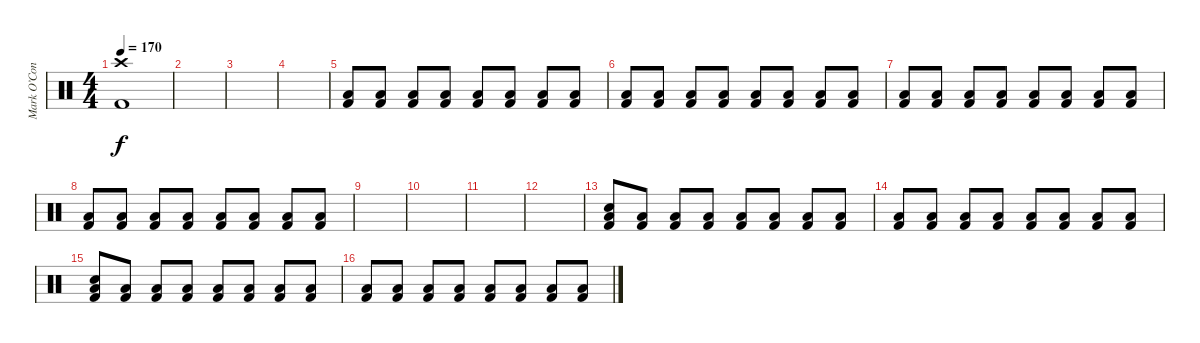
\track ("Mark O’Connell - Drums" "Mark O’Con") {instrument percussion}
\staff {score}
\articulation defaults
\ts (4 4)
\tempo 170
\clef neutral
\ks c
("Crash high (hit)" "Kick (hit) 2").1{dy f} |
|
|
|
("Low Tom (hit)" "Kick (hit) 2").8{volume 7} ("Low Tom (hit)" "Kick (hit) 2").8{volume 16} ("Low Tom (hit)" "Kick (hit) 2").8 ("Low Tom (hit)" "Kick (hit) 2").8 ("Low Tom (hit)" "Kick (hit) 2").8 ("Low Tom (hit)" "Kick (hit) 2").8 ("Low Tom (hit)" "Kick (hit) 2").8 ("Low Tom (hit)" "Kick (hit) 2").8 |
("Low Tom (hit)" "Kick (hit) 2").8 ("Low Tom (hit)" "Kick (hit) 2").8 ("Low Tom (hit)" "Kick (hit) 2").8 ("Low Tom (hit)" "Kick (hit) 2").8 ("Low Tom (hit)" "Kick (hit) 2").8 ("Low Tom (hit)" "Kick (hit) 2").8 ("Low Tom (hit)" "Kick (hit) 2").8 ("Low Tom (hit)" "Kick (hit) 2").8 |
("Low Tom (hit)" "Kick (hit) 2").8 ("Low Tom (hit)" "Kick (hit) 2").8 ("Low Tom (hit)" "Kick (hit) 2").8 ("Low Tom (hit)" "Kick (hit) 2").8 ("Low Tom (hit)" "Kick (hit) 2").8 ("Low Tom (hit)" "Kick (hit) 2").8 ("Low Tom (hit)" "Kick (hit) 2").8 ("Low Tom (hit)" "Kick (hit) 2").8 |
("Low Tom (hit)" "Kick (hit) 2").8 ("Low Tom (hit)" "Kick (hit) 2").8 ("Low Tom (hit)" "Kick (hit) 2").8 ("Low Tom (hit)" "Kick (hit) 2").8 ("Low Tom (hit)" "Kick (hit) 2").8 ("Low Tom (hit)" "Kick (hit) 2").8 ("Low Tom (hit)" "Kick (hit) 2").8 ("Low Tom (hit)" "Kick (hit) 2").8 |
|
|
|
|
("Snare (hit) 2" "Low Tom (hit)" "Kick (hit) 2").8 ("Low Tom (hit)" "Kick (hit) 2").8{volume 7} ("Low Tom (hit)" "Kick (hit) 2").8{volume 16} ("Low Tom (hit)" "Kick (hit) 2").8 ("Low Tom (hit)" "Kick (hit) 2").8 ("Low Tom (hit)" "Kick (hit) 2").8 ("Low Tom (hit)" "Kick (hit) 2").8 ("Low Tom (hit)" "Kick (hit) 2").8 |
("Low Tom (hit)" "Kick (hit) 2").8 ("Low Tom (hit)" "Kick (hit) 2").8 ("Low Tom (hit)" "Kick (hit) 2").8 ("Low Tom (hit)" "Kick (hit) 2").8 ("Low Tom (hit)" "Kick (hit) 2").8 ("Low Tom (hit)" "Kick (hit) 2").8 ("Low Tom (hit)" "Kick (hit) 2").8 ("Low Tom (hit)" "Kick (hit) 2").8 |
("Snare (hit) 2" "Low Tom (hit)" "Kick (hit) 2").8{volume 16} ("Low Tom (hit)" "Kick (hit) 2").8{volume 7} ("Low Tom (hit)" "Kick (hit) 2").8{volume 16} ("Low Tom (hit)" "Kick (hit) 2").8 ("Low Tom (hit)" "Kick (hit) 2").8 ("Low Tom (hit)" "Kick (hit) 2").8 ("Low Tom (hit)" "Kick (hit) 2").8 ("Low Tom (hit)" "Kick (hit) 2").8 |
("Low Tom (hit)" "Kick (hit) 2").8 ("Low Tom (hit)" "Kick (hit) 2").8 ("Low Tom (hit)" "Kick (hit) 2").8 ("Low Tom (hit)" "Kick (hit) 2").8 ("Low Tom (hit)" "Kick (hit) 2").8 ("Low Tom (hit)" "Kick (hit) 2").8 ("Low Tom (hit)" "Kick (hit) 2").8 ("Low Tom (hit)" "Kick (hit) 2").8
